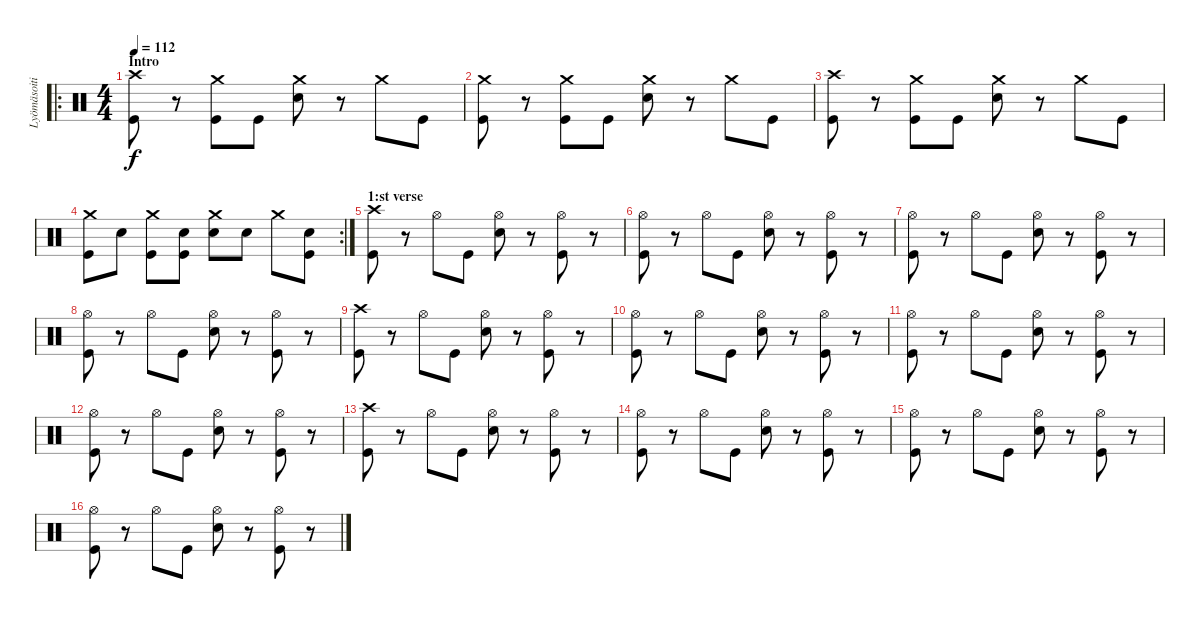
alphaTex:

\track ("Lyömäsoitin" "Lyömäsoiti") {instrument percussion}
\staff {score}
\articulation defaults
\ro
\ts (4 4)
\section ("" "Intro")
\tempo 112
\clef neutral
\ks c
("Crash high (hit)" "Kick (hit)").8{dy f} r.8 ("Crash medium (hit)" "Kick (hit)").8 "Kick (hit)".8 ("Crash medium (hit)" "Snare (hit) 2").8 r.8 "Crash medium (hit)".8 "Kick (hit)".8 |
("Crash medium (hit)" "Kick (hit)").8 r.8 ("Crash medium (hit)" "Kick (hit)").8 "Kick (hit)".8 ("Crash medium (hit)" "Snare (hit) 2").8 r.8 "Crash medium (hit)".8 "Kick (hit)".8 |
("Crash high (hit)" "Kick (hit)").8 r.8 ("Crash medium (hit)" "Kick (hit)").8 "Kick (hit)".8 ("Crash medium (hit)" "Snare (hit) 2").8 r.8 "Crash medium (hit)".8 "Kick (hit)".8 |
\rc 2
("Crash medium (hit)" "Kick (hit)").8 "Snare (hit)".8 ("Crash medium (hit)" "Kick (hit)").8 ("Snare (hit)" "Kick (hit)").8 ("Crash medium (hit)" "Snare (hit) 2").8 "Snare (hit)".8 "Crash medium (hit)".8 ("Snare (hit)" "Kick (hit)").8 |
\section ("" "1:st verse")
("Crash high (hit)" "Kick (hit)").8 r.8 "Hi-Hat (open)".8 "Kick (hit)".8 ("Hi-Hat (open)" "Snare (hit) 2").8 r.8 ("Hi-Hat (open)" "Kick (hit)").8 r.8 |
("Hi-Hat (open)" "Kick (hit)").8 r.8 "Hi-Hat (open)".8 "Kick (hit)".8 ("Hi-Hat (open)" "Snare (hit) 2").8 r.8 ("Hi-Hat (open)" "Kick (hit)").8 r.8 |
("Hi-Hat (open)" "Kick (hit)").8 r.8 "Hi-Hat (open)".8 "Kick (hit)".8 ("Hi-Hat (open)" "Snare (hit) 2").8 r.8 ("Hi-Hat (open)" "Kick (hit)").8 r.8 |
("Hi-Hat (open)" "Kick (hit)").8 r.8 "Hi-Hat (open)".8 "Kick (hit)".8 ("Hi-Hat (open)" "Snare (hit) 2").8 r.8 ("Hi-Hat (open)" "Kick (hit)").8 r.8 |
("Crash high (hit)" "Kick (hit)").8 r.8 "Hi-Hat (open)".8 "Kick (hit)".8 ("Hi-Hat (open)" "Snare (hit) 2").8 r.8 ("Hi-Hat (open)" "Kick (hit)").8 r.8 |
("Hi-Hat (open)" "Kick (hit)").8 r.8 "Hi-Hat (open)".8 "Kick (hit)".8 ("Hi-Hat (open)" "Snare (hit) 2").8 r.8 ("Hi-Hat (open)" "Kick (hit)").8 r.8 |
("Hi-Hat (open)" "Kick (hit)").8 r.8 "Hi-Hat (open)".8 "Kick (hit)".8 ("Hi-Hat (open)" "Snare (hit) 2").8 r.8 ("Hi-Hat (open)" "Kick (hit)").8 r.8 |
("Hi-Hat (open)" "Kick (hit)").8 r.8 "Hi-Hat (open)".8 "Kick (hit)".8 ("Hi-Hat (open)" "Snare (hit) 2").8 r.8 ("Hi-Hat (open)" "Kick (hit)").8 r.8 |
("Crash high (hit)" "Kick (hit)").8 r.8 "Hi-Hat (open)".8 "Kick (hit)".8 ("Hi-Hat (open)" "Snare (hit) 2").8 r.8 ("Hi-Hat (open)" "Kick (hit)").8 r.8 |
("Hi-Hat (open)" "Kick (hit)").8 r.8 "Hi-Hat (open)".8 "Kick (hit)".8 ("Hi-Hat (open)" "Snare (hit) 2").8 r.8 ("Hi-Hat (open)" "Kick (hit)").8 r.8 |
("Hi-Hat (open)" "Kick (hit)").8 r.8 "Hi-Hat (open)".8 "Kick (hit)".8 ("Hi-Hat (open)" "Snare (hit) 2").8 r.8 ("Hi-Hat (open)" "Kick (hit)").8 r.8 |
("Hi-Hat (open)" "Kick (hit)").8 r.8 "Hi-Hat (open)".8 "Kick (hit)".8 ("Hi-Hat (open)" "Snare (hit) 2").8 r.8 ("Hi-Hat (open)" "Kick (hit)").8 r.8
